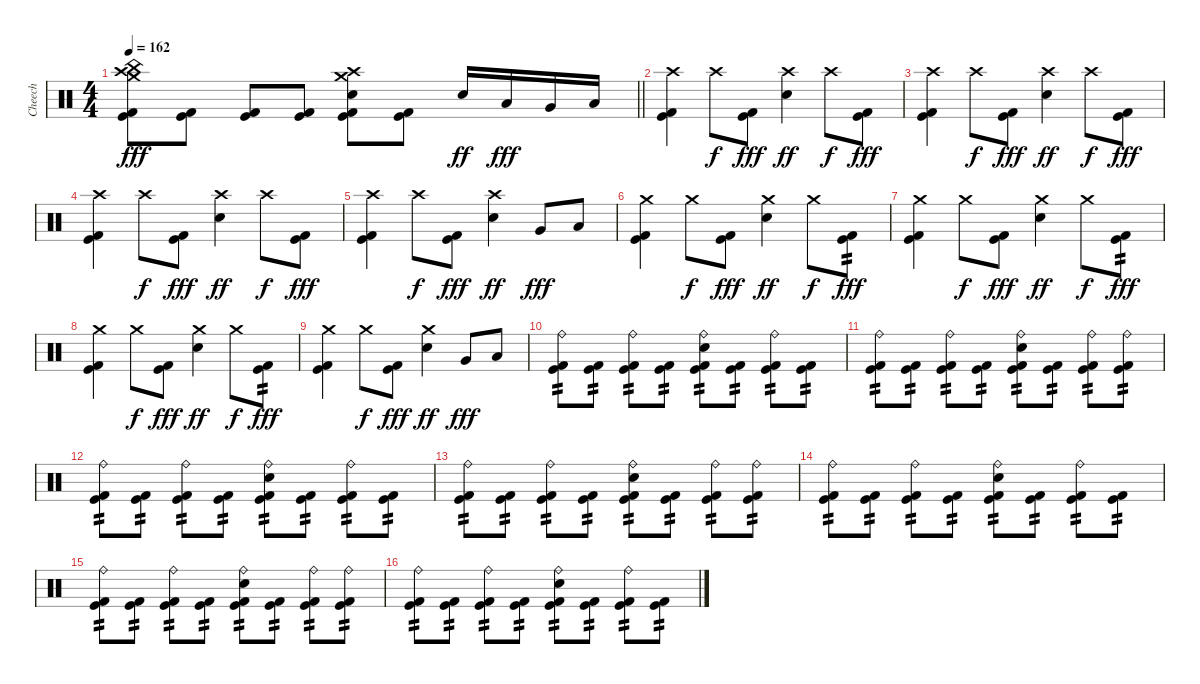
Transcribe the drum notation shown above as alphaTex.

\track ("Cheech" "Cheech") {instrument percussion}
\staff {score}
\articulation defaults
\ts (4 4)
\tempo 162
\clef neutral
\barLineRight lightlight
\ks c
("China (hit)" "Crash high (hit)" "Crash medium (hit)" "Kick (hit) 2" "Kick (hit)").8{dy fff} ("Kick (hit) 2" "Kick (hit)").8 ("Kick (hit) 2" "Kick (hit)").8 ("Kick (hit) 2" "Kick (hit)").8 ("Crash medium (hit)" "Crash high (hit)" "Electric Snare (hit)" "Kick (hit) 2" "Kick (hit)").8 ("Kick (hit) 2" "Kick (hit)").8 "Electric Snare (hit)".16{dy ff} "Low Tom (hit)".16{dy fff} "Very Low Tom (hit)".16 "Low Floor Tom (hit)".16 |
("Crash high (hit)" "Kick (hit) 2" "Kick (hit)").4 "Crash high (hit)".8{dy f} ("Kick (hit) 2" "Kick (hit)").8{dy fff} ("Crash high (hit)" "Electric Snare (hit)").4{dy ff} "Crash high (hit)".8{dy f} ("Kick (hit) 2" "Kick (hit)").8{dy fff} |
("Crash high (hit)" "Kick (hit) 2" "Kick (hit)").4 "Crash high (hit)".8{dy f} ("Kick (hit) 2" "Kick (hit)").8{dy fff} ("Crash high (hit)" "Electric Snare (hit)").4{dy ff} "Crash high (hit)".8{dy f} ("Kick (hit) 2" "Kick (hit)").8{dy fff} |
("Crash high (hit)" "Kick (hit) 2" "Kick (hit)").4 "Crash high (hit)".8{dy f} ("Kick (hit) 2" "Kick (hit)").8{dy fff} ("Crash high (hit)" "Electric Snare (hit)").4{dy ff} "Crash high (hit)".8{dy f} ("Kick (hit) 2" "Kick (hit)").8{dy fff} |
("Crash high (hit)" "Kick (hit) 2" "Kick (hit)").4 "Crash high (hit)".8{dy f} ("Kick (hit) 2" "Kick (hit)").8{dy fff} ("Crash high (hit)" "Electric Snare (hit)").4{dy ff} "Very Low Tom (hit)".8{dy fff} "Low Floor Tom (hit)".8 |
("Crash medium (hit)" "Kick (hit) 2" "Kick (hit)").4 "Crash medium (hit)".8{dy f} ("Kick (hit) 2" "Kick (hit)").8{dy fff} ("Crash medium (hit)" "Electric Snare (hit)").4{dy ff} "Crash medium (hit)".8{dy f} ("Kick (hit) 2" "Kick (hit)").8{tp 2 dy fff} |
("Crash medium (hit)" "Kick (hit) 2" "Kick (hit)").4 "Crash medium (hit)".8{dy f} ("Kick (hit) 2" "Kick (hit)").8{dy fff} ("Crash medium (hit)" "Electric Snare (hit)").4{dy ff} "Crash medium (hit)".8{dy f} ("Kick (hit) 2" "Kick (hit)").8{tp 2 dy fff} |
("Crash medium (hit)" "Kick (hit) 2" "Kick (hit)").4 "Crash medium (hit)".8{dy f} ("Kick (hit) 2" "Kick (hit)").8{dy fff} ("Crash medium (hit)" "Electric Snare (hit)").4{dy ff} "Crash medium (hit)".8{dy f} ("Kick (hit) 2" "Kick (hit)").8{tp 2 dy fff} |
("Crash medium (hit)" "Kick (hit) 2" "Kick (hit)").4 "Crash medium (hit)".8{dy f} ("Kick (hit) 2" "Kick (hit)").8{dy fff} ("Crash medium (hit)" "Electric Snare (hit)").4{dy ff} "Very Low Tom (hit)".8{dy fff} "Low Floor Tom (hit)".8 |
("Ride (bell)" "Kick (hit) 2" "Kick (hit)").8{tp 2} ("Kick (hit) 2" "Kick (hit)").8{tp 2} ("Ride (bell)" "Kick (hit) 2" "Kick (hit)").8{tp 2} ("Kick (hit) 2" "Kick (hit)").8{tp 2} ("Ride (bell)" "Electric Snare (hit)" "Kick (hit) 2" "Kick (hit)").8{tp 2} ("Kick (hit) 2" "Kick (hit)").8{tp 2} ("Ride (bell)" "Kick (hit) 2" "Kick (hit)").8{tp 2} ("Kick (hit) 2" "Kick (hit)").8{tp 2} |
("Ride (bell)" "Kick (hit) 2" "Kick (hit)").8{tp 2} ("Kick (hit) 2" "Kick (hit)").8{tp 2} ("Ride (bell)" "Kick (hit) 2" "Kick (hit)").8{tp 2} ("Kick (hit) 2" "Kick (hit)").8{tp 2} ("Ride (bell)" "Electric Snare (hit)" "Kick (hit) 2" "Kick (hit)").8{tp 2} ("Kick (hit) 2" "Kick (hit)").8{tp 2} ("Ride (bell)" "Kick (hit) 2" "Kick (hit)").8{tp 2} ("Ride (bell)" "Kick (hit) 2" "Kick (hit)").8{tp 2} |
("Ride (bell)" "Kick (hit) 2" "Kick (hit)").8{tp 2} ("Kick (hit) 2" "Kick (hit)").8{tp 2} ("Ride (bell)" "Kick (hit) 2" "Kick (hit)").8{tp 2} ("Kick (hit) 2" "Kick (hit)").8{tp 2} ("Ride (bell)" "Electric Snare (hit)" "Kick (hit) 2" "Kick (hit)").8{tp 2} ("Kick (hit) 2" "Kick (hit)").8{tp 2} ("Ride (bell)" "Kick (hit) 2" "Kick (hit)").8{tp 2} ("Kick (hit) 2" "Kick (hit)").8{tp 2} |
("Ride (bell)" "Kick (hit) 2" "Kick (hit)").8{tp 2} ("Kick (hit) 2" "Kick (hit)").8{tp 2} ("Ride (bell)" "Kick (hit) 2" "Kick (hit)").8{tp 2} ("Kick (hit) 2" "Kick (hit)").8{tp 2} ("Ride (bell)" "Electric Snare (hit)" "Kick (hit) 2" "Kick (hit)").8{tp 2} ("Kick (hit) 2" "Kick (hit)").8{tp 2} ("Ride (bell)" "Kick (hit) 2" "Kick (hit)").8{tp 2} ("Ride (bell)" "Kick (hit) 2" "Kick (hit)").8{tp 2} |
("Ride (bell)" "Kick (hit) 2" "Kick (hit)").8{tp 2} ("Kick (hit) 2" "Kick (hit)").8{tp 2} ("Ride (bell)" "Kick (hit) 2" "Kick (hit)").8{tp 2} ("Kick (hit) 2" "Kick (hit)").8{tp 2} ("Ride (bell)" "Electric Snare (hit)" "Kick (hit) 2" "Kick (hit)").8{tp 2} ("Kick (hit) 2" "Kick (hit)").8{tp 2} ("Ride (bell)" "Kick (hit) 2" "Kick (hit)").8{tp 2} ("Kick (hit) 2" "Kick (hit)").8{tp 2} |
("Ride (bell)" "Kick (hit) 2" "Kick (hit)").8{tp 2} ("Kick (hit) 2" "Kick (hit)").8{tp 2} ("Ride (bell)" "Kick (hit) 2" "Kick (hit)").8{tp 2} ("Kick (hit) 2" "Kick (hit)").8{tp 2} ("Ride (bell)" "Electric Snare (hit)" "Kick (hit) 2" "Kick (hit)").8{tp 2} ("Kick (hit) 2" "Kick (hit)").8{tp 2} ("Ride (bell)" "Kick (hit) 2" "Kick (hit)").8{tp 2} ("Ride (bell)" "Kick (hit) 2" "Kick (hit)").8{tp 2} |
("Ride (bell)" "Kick (hit) 2" "Kick (hit)").8{tp 2} ("Kick (hit) 2" "Kick (hit)").8{tp 2} ("Ride (bell)" "Kick (hit) 2" "Kick (hit)").8{tp 2} ("Kick (hit) 2" "Kick (hit)").8{tp 2} ("Ride (bell)" "Electric Snare (hit)" "Kick (hit) 2" "Kick (hit)").8{tp 2} ("Kick (hit) 2" "Kick (hit)").8{tp 2} ("Ride (bell)" "Kick (hit) 2" "Kick (hit)").8{tp 2} ("Kick (hit) 2" "Kick (hit)").8{tp 2}
